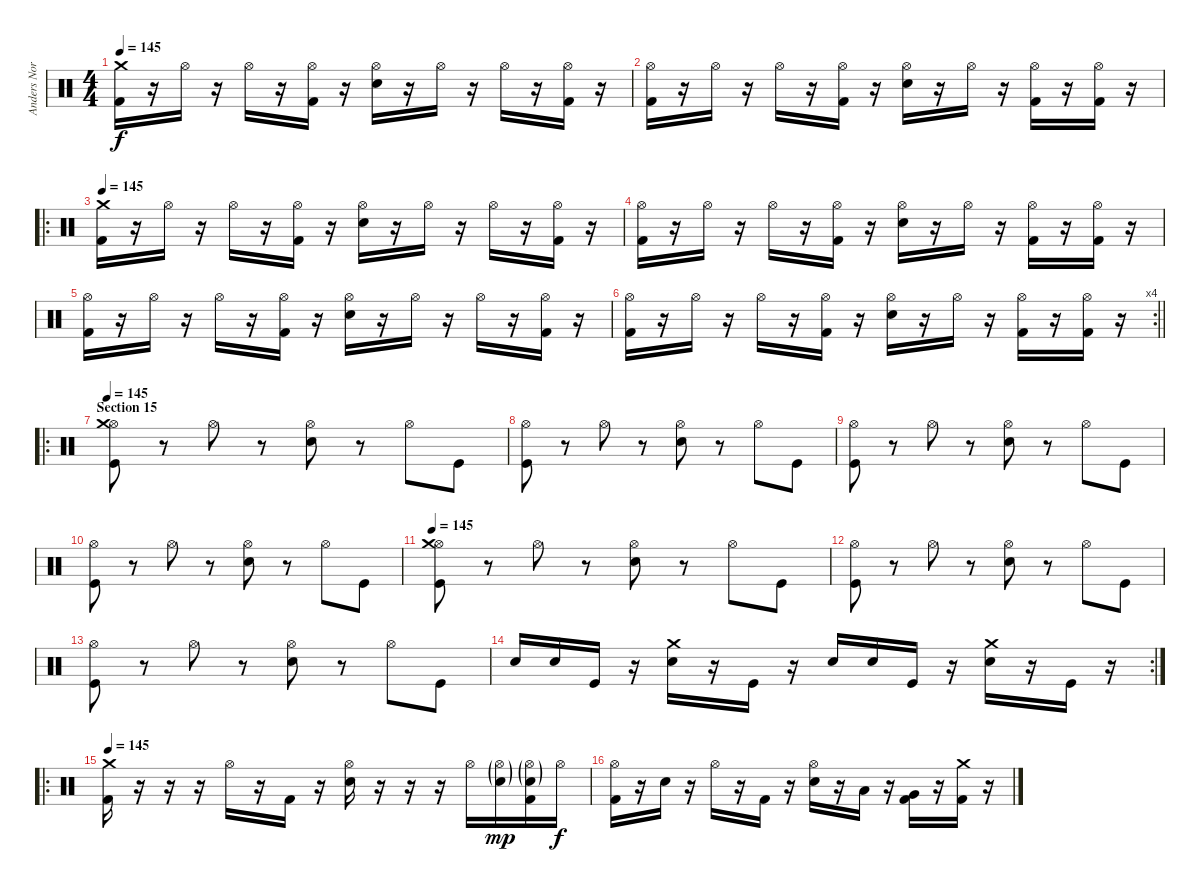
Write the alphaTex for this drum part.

\track ("Anders Nordin" "Anders Nor") {instrument percussion}
\staff {score}
\articulation defaults
\ts (4 4)
\tempo 145
\clef neutral
\ks c
("Crash medium (hit)" "Kick (hit) 2").16{dy f} r.16 "Hi-Hat (open)".16 r.16 "Hi-Hat (open)".16 r.16 ("Hi-Hat (open)" "Kick (hit) 2").16 r.16 ("Hi-Hat (open)" "Snare (hit) 2").16 r.16 "Hi-Hat (open)".16 r.16 "Hi-Hat (open)".16 r.16 ("Hi-Hat (open)" "Kick (hit) 2").16 r.16 |
("Hi-Hat (open)" "Kick (hit) 2").16 r.16 "Hi-Hat (open)".16 r.16 "Hi-Hat (open)".16 r.16 ("Hi-Hat (open)" "Kick (hit) 2").16 r.16 ("Hi-Hat (open)" "Snare (hit) 2").16 r.16 "Hi-Hat (open)".16 r.16 ("Hi-Hat (open)" "Kick (hit) 2").16 r.16 ("Hi-Hat (open)" "Kick (hit) 2").16 r.16 |
\ro
\tempo 145
("Crash medium (hit)" "Kick (hit) 2").16 r.16 "Hi-Hat (open)".16 r.16 "Hi-Hat (open)".16 r.16 ("Hi-Hat (open)" "Kick (hit) 2").16 r.16 ("Hi-Hat (open)" "Snare (hit) 2").16 r.16 "Hi-Hat (open)".16 r.16 "Hi-Hat (open)".16 r.16 ("Hi-Hat (open)" "Kick (hit) 2").16 r.16 |
("Hi-Hat (open)" "Kick (hit) 2").16 r.16 "Hi-Hat (open)".16 r.16 "Hi-Hat (open)".16 r.16 ("Hi-Hat (open)" "Kick (hit) 2").16 r.16 ("Hi-Hat (open)" "Snare (hit) 2").16 r.16 "Hi-Hat (open)".16 r.16 ("Hi-Hat (open)" "Kick (hit) 2").16 r.16 ("Hi-Hat (open)" "Kick (hit) 2").16 r.16 |
("Hi-Hat (open)" "Kick (hit) 2").16 r.16 "Hi-Hat (open)".16 r.16 "Hi-Hat (open)".16 r.16 ("Hi-Hat (open)" "Kick (hit) 2").16 r.16 ("Hi-Hat (open)" "Snare (hit) 2").16 r.16 "Hi-Hat (open)".16 r.16 "Hi-Hat (open)".16 r.16 ("Hi-Hat (open)" "Kick (hit) 2").16 r.16 |
\rc 4
\barLineRight lightlight
("Hi-Hat (open)" "Kick (hit) 2").16 r.16 "Hi-Hat (open)".16 r.16 "Hi-Hat (open)".16 r.16 ("Hi-Hat (open)" "Kick (hit) 2").16 r.16 ("Hi-Hat (open)" "Snare (hit) 2").16 r.16 "Hi-Hat (open)".16 r.16 ("Hi-Hat (open)" "Kick (hit) 2").16 r.16 ("Hi-Hat (open)" "Kick (hit) 2").16 r.16 |
\ro
\section ("" "Section 15")
\tempo 145
("Hi-Hat (open)" "Crash medium (hit)" "Kick (hit)").8 r.8 "Hi-Hat (open)".8 r.8 ("Hi-Hat (open)" "Snare (hit) 2").8 r.8 "Hi-Hat (open)".8 "Kick (hit)".8 |
("Hi-Hat (open)" "Kick (hit)").8 r.8 "Hi-Hat (open)".8 r.8 ("Hi-Hat (open)" "Snare (hit) 2").8 r.8 "Hi-Hat (open)".8 "Kick (hit)".8 |
("Hi-Hat (open)" "Kick (hit)").8 r.8 "Hi-Hat (open)".8 r.8 ("Hi-Hat (open)" "Snare (hit) 2").8 r.8 "Hi-Hat (open)".8 "Kick (hit)".8 |
("Hi-Hat (open)" "Kick (hit)").8 r.8 "Hi-Hat (open)".8 r.8 ("Hi-Hat (open)" "Snare (hit) 2").8 r.8 "Hi-Hat (open)".8 "Kick (hit)".8 |
\tempo 145
("Hi-Hat (open)" "Crash medium (hit)" "Kick (hit)").8 r.8 "Hi-Hat (open)".8 r.8 ("Hi-Hat (open)" "Snare (hit) 2").8 r.8 "Hi-Hat (open)".8 "Kick (hit)".8 |
("Hi-Hat (open)" "Kick (hit)").8 r.8 "Hi-Hat (open)".8 r.8 ("Hi-Hat (open)" "Snare (hit) 2").8 r.8 "Hi-Hat (open)".8 "Kick (hit)".8 |
("Hi-Hat (open)" "Kick (hit)").8 r.8 "Hi-Hat (open)".8 r.8 ("Hi-Hat (open)" "Snare (hit) 2").8 r.8 "Hi-Hat (open)".8 "Kick (hit)".8 |
\rc 2 "Snare (hit) 2".16 "Snare (hit) 2".16 "Kick (hit)".16
r.16 ("Snare (hit) 2" "Crash medium (hit)").16 r.16 "Kick (hit)".16 r.16 "Snare (hit) 2".16 "Snare (hit) 2".16 "Kick (hit)".16 r.16 ("Snare (hit) 2" "Crash medium (hit)").16 r.16 "Kick (hit)".16 r.16 |
\ro
\tempo 145
("Crash medium (hit)" "Kick (hit) 2").16 r.16 r.16 r.16 "Hi-Hat (open)".16 r.16 "Kick (hit) 2".16 r.16 ("Hi-Hat (open)" "Snare (hit) 2").16 r.16 r.16 r.16 "Hi-Hat (open)".16 ("Hi-Hat (open)"{g} "Snare (hit) 2"{g}).16{dy mp} ("Hi-Hat (open)"{g} "Snare (hit) 2"{g} "Kick (hit) 2").16 "Hi-Hat (open)".16{dy f} |
("Hi-Hat (open)" "Kick (hit) 2").16 r.16 "Snare (hit) 2".16 r.16 "Hi-Hat (open)".16 r.16 "Kick (hit) 2".16 r.16 ("Hi-Hat (open)" "Snare (hit) 2").16 r.16 "Low Tom (hit)".16 r.16 ("Very Low Tom (hit)" "Kick (hit) 2").16 r.16 ("Crash medium (hit)" "Kick (hit) 2").16 r.16
